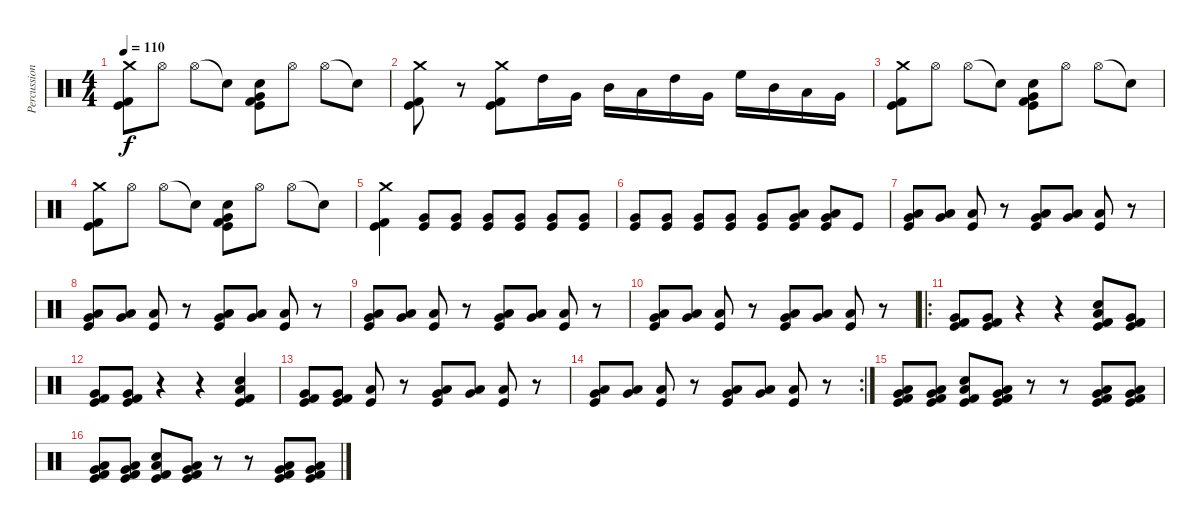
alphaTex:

\track ("Percussion" "Percussion") {instrument percussion}
\staff {score}
\articulation defaults
\ts (4 4)
\tempo 110
\clef neutral
\ks c
("Crash medium (hit)" "Kick (hit) 2" "Kick (hit)").8{dy f} "Hi-Hat (open)".8 "Hi-Hat (open)".8 "Snare (hit)"{t}.8 ("Very Low Tom (hit)" "Snare (hit) 2" "Kick (hit) 2" "Kick (hit)").8 "Hi-Hat (open)".8 "Hi-Hat (open)".8 "Snare (hit)"{t}.8 |
("Crash medium (hit)" "Kick (hit) 2" "Kick (hit)").8 r.8 ("Crash medium (hit)" "Kick (hit) 2" "Kick (hit)").8 "High Tom (hit)".16 "Very Low Tom (hit)".16 "Mid Tom (hit)".16 "Low Tom (hit)".16 "High Tom (hit)".16 "Very Low Tom (hit)".16 "High Floor Tom (hit)".16 "Mid Tom (hit)".16 "Low Tom (hit)".16 "Very Low Tom (hit)".16 |
("Crash medium (hit)" "Kick (hit) 2" "Kick (hit)").8 "Hi-Hat (open)".8 "Hi-Hat (open)".8 "Snare (hit)"{t}.8 ("Very Low Tom (hit)" "Snare (hit) 2" "Kick (hit) 2" "Kick (hit)").8 "Hi-Hat (open)".8 "Hi-Hat (open)".8 "Snare (hit)"{t}.8 |
("Crash medium (hit)" "Kick (hit) 2" "Kick (hit)").8 "Hi-Hat (open)".8 "Hi-Hat (open)".8 "Snare (hit)"{t}.8 ("Very Low Tom (hit)" "Snare (hit) 2" "Kick (hit) 2" "Kick (hit)").8 "Hi-Hat (open)".8 "Hi-Hat (open)".8 "Snare (hit)"{t}.8 |
("Crash medium (hit)" "Kick (hit) 2" "Kick (hit)").4 ("Very Low Tom (hit)" "Kick (hit)").8 ("Very Low Tom (hit)" "Kick (hit)").8 ("Very Low Tom (hit)" "Kick (hit)").8 ("Very Low Tom (hit)" "Kick (hit)").8 ("Very Low Tom (hit)" "Kick (hit)").8 ("Very Low Tom (hit)" "Kick (hit)").8 |
("Very Low Tom (hit)" "Kick (hit)").8 ("Very Low Tom (hit)" "Kick (hit)").8 ("Very Low Tom (hit)" "Kick (hit)").8 ("Very Low Tom (hit)" "Kick (hit)").8 ("Very Low Tom (hit)" "Kick (hit)").8 ("Low Tom (hit)" "Very Low Tom (hit)" "Kick (hit)").8 ("Low Tom (hit)" "Very Low Tom (hit)" "Kick (hit)").8 "Kick (hit)".8 |
("Low Tom (hit)" "Very Low Tom (hit)" "Kick (hit)").8 ("Low Tom (hit)" "Very Low Tom (hit)").8 ("Low Floor Tom (hit)" "Kick (hit)").8 r.8 ("Low Tom (hit)" "Very Low Tom (hit)" "Kick (hit)").8 ("Low Tom (hit)" "Very Low Tom (hit)").8 ("Low Floor Tom (hit)" "Kick (hit)").8 r.8 |
("Low Tom (hit)" "Very Low Tom (hit)" "Kick (hit)").8 ("Low Tom (hit)" "Very Low Tom (hit)").8 ("Low Floor Tom (hit)" "Kick (hit)").8 r.8 ("Low Tom (hit)" "Very Low Tom (hit)" "Kick (hit)").8 ("Low Tom (hit)" "Very Low Tom (hit)").8 ("Low Floor Tom (hit)" "Kick (hit)").8 r.8 |
("Low Tom (hit)" "Very Low Tom (hit)" "Kick (hit)").8 ("Low Tom (hit)" "Very Low Tom (hit)").8 ("Low Floor Tom (hit)" "Kick (hit)").8 r.8 ("Low Tom (hit)" "Very Low Tom (hit)" "Kick (hit)").8 ("Low Tom (hit)" "Very Low Tom (hit)").8 ("Low Floor Tom (hit)" "Kick (hit)").8 r.8 |
("Low Tom (hit)" "Very Low Tom (hit)" "Kick (hit)").8 ("Low Tom (hit)" "Very Low Tom (hit)").8 ("Low Floor Tom (hit)" "Kick (hit)").8 r.8 ("Low Tom (hit)" "Very Low Tom (hit)" "Kick (hit)").8 ("Low Tom (hit)" "Very Low Tom (hit)").8 ("Low Floor Tom (hit)" "Kick (hit)").8 r.8 |
\ro
("Very Low Tom (hit)" "Kick (hit) 2" "Kick (hit)").8 ("Very Low Tom (hit)" "Kick (hit) 2" "Kick (hit)").8 r.4 r.4 ("Electric Snare (hit)" "Low Tom (hit)" "Kick (hit) 2" "Kick (hit)").8 ("Very Low Tom (hit)" "Kick (hit) 2" "Kick (hit)").8 |
("Very Low Tom (hit)" "Kick (hit) 2" "Kick (hit)").8 ("Very Low Tom (hit)" "Kick (hit) 2" "Kick (hit)").8 r.4 r.4 ("Electric Snare (hit)" "Low Tom (hit)" "Kick (hit) 2" "Kick (hit)").4 |
("Very Low Tom (hit)" "Kick (hit) 2" "Kick (hit)").8 ("Very Low Tom (hit)" "Kick (hit) 2" "Kick (hit)").8 ("Low Floor Tom (hit)" "Kick (hit)").8 r.8 ("Low Tom (hit)" "Very Low Tom (hit)" "Kick (hit)").8 ("Low Tom (hit)" "Very Low Tom (hit)").8 ("Low Floor Tom (hit)" "Kick (hit)").8 r.8 |
\rc 2
("Low Tom (hit)" "Very Low Tom (hit)" "Kick (hit)").8 ("Low Tom (hit)" "Very Low Tom (hit)").8 ("Low Floor Tom (hit)" "Kick (hit)").8 r.8 ("Low Tom (hit)" "Very Low Tom (hit)" "Kick (hit)").8 ("Low Tom (hit)" "Very Low Tom (hit)").8 ("Low Floor Tom (hit)" "Kick (hit)").8 r.8 |
("Low Tom (hit)" "Very Low Tom (hit)" "Kick (hit) 2" "Kick (hit)").8 ("Low Tom (hit)" "Very Low Tom (hit)" "Kick (hit) 2" "Kick (hit)").8 ("Snare (hit) 2" "Low Tom (hit)" "Kick (hit) 2" "Kick (hit)").8 ("Low Tom (hit)" "Very Low Tom (hit)" "Kick (hit) 2" "Kick (hit)").8 r.8 r.8 ("Low Tom (hit)" "Very Low Tom (hit)" "Kick (hit) 2" "Kick (hit)").8 ("Low Tom (hit)" "Very Low Tom (hit)" "Kick (hit) 2" "Kick (hit)").8 |
("Low Tom (hit)" "Very Low Tom (hit)" "Kick (hit) 2" "Kick (hit)").8 ("Low Tom (hit)" "Very Low Tom (hit)" "Kick (hit) 2" "Kick (hit)").8 ("Snare (hit) 2" "Low Tom (hit)" "Kick (hit) 2" "Kick (hit)").8 ("Low Tom (hit)" "Very Low Tom (hit)" "Kick (hit) 2" "Kick (hit)").8 r.8 r.8 ("Low Tom (hit)" "Very Low Tom (hit)" "Kick (hit) 2" "Kick (hit)").8 ("Low Tom (hit)" "Very Low Tom (hit)" "Kick (hit) 2" "Kick (hit)").8
